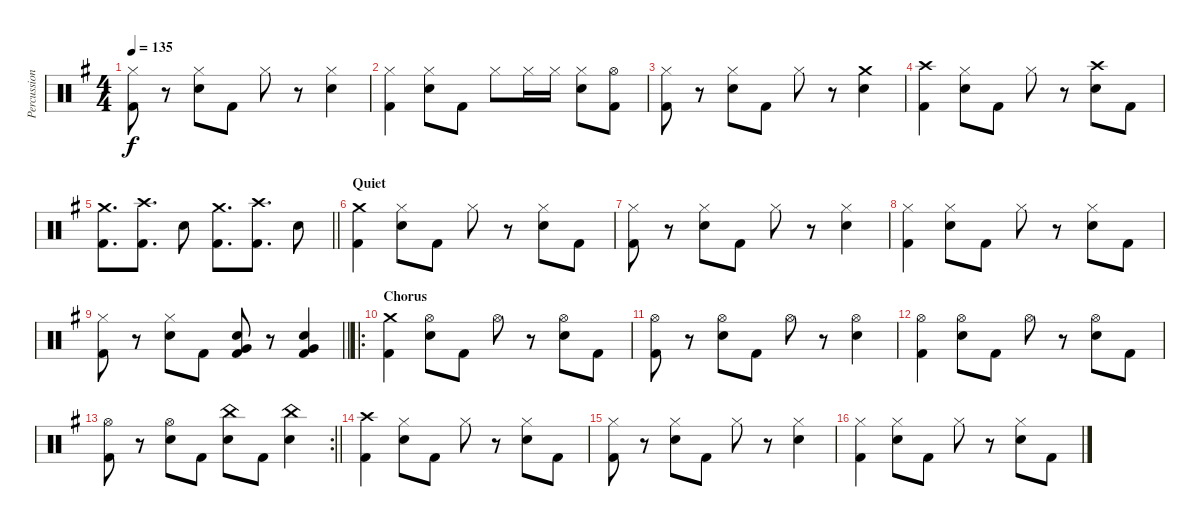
\track ("Percussion" "Percussion") {instrument percussion}
\staff {score}
\articulation defaults
\ts (4 4)
\tempo 135
\clef neutral
\ks g
("Hi-Hat (closed)" "Kick (hit) 2").8{dy f} r.8 ("Hi-Hat (closed)" "Electric Snare (hit)").8 "Kick (hit) 2".8 "Hi-Hat (closed)".8 r.8 ("Hi-Hat (closed)" "Electric Snare (hit)").4 |
("Hi-Hat (closed)" "Kick (hit) 2").4 ("Hi-Hat (closed)" "Electric Snare (hit)").8 "Kick (hit) 2".8 "Hi-Hat (closed)".8 "Hi-Hat (closed)".16 "Hi-Hat (closed)".16 ("Hi-Hat (closed)" "Electric Snare (hit)").8 ("Hi-Hat (open)" "Kick (hit) 2").8 |
("Hi-Hat (closed)" "Kick (hit) 2").8 r.8 ("Hi-Hat (closed)" "Electric Snare (hit)").8 "Kick (hit) 2".8 "Hi-Hat (closed)".8 r.8 ("Crash medium (hit)" "Electric Snare (hit)").4 |
("Crash high (hit)" "Kick (hit) 2").4 ("Hi-Hat (closed)" "Electric Snare (hit)").8 "Kick (hit) 2".8 "Hi-Hat (closed)".8 r.8 ("Crash high (hit)" "Electric Snare (hit)").8 "Kick (hit) 2".8 |
\barLineRight lightlight
("Kick (hit) 2" "Crash medium (hit)").8{d} ("Kick (hit) 2" "Crash high (hit)").8{d} "Electric Snare (hit)".8 ("Kick (hit) 2" "Crash medium (hit)").8{d} ("Kick (hit) 2" "Crash high (hit)").8{d} "Electric Snare (hit)".8 |
\section ("" "Quiet")
("Crash medium (hit)" "Kick (hit) 2").4 ("Hi-Hat (closed)" "Electric Snare (hit)").8 "Kick (hit) 2".8 "Hi-Hat (closed)".8 r.8 ("Hi-Hat (closed)" "Electric Snare (hit)").8 "Kick (hit) 2".8 |
("Hi-Hat (closed)" "Kick (hit) 2").8 r.8 ("Hi-Hat (closed)" "Electric Snare (hit)").8 "Kick (hit) 2".8 "Hi-Hat (closed)".8 r.8 ("Hi-Hat (closed)" "Electric Snare (hit)").4 |
("Hi-Hat (closed)" "Kick (hit) 2").4 ("Hi-Hat (closed)" "Electric Snare (hit)").8 "Kick (hit) 2".8 "Hi-Hat (closed)".8 r.8 ("Hi-Hat (closed)" "Electric Snare (hit)").8 "Kick (hit) 2".8 |
\barLineRight lightlight
("Hi-Hat (closed)" "Kick (hit) 2").8 r.8 ("Hi-Hat (closed)" "Electric Snare (hit)").8 "Kick (hit) 2".8 ("Very Low Tom (hit)" "Electric Snare (hit)" "Kick (hit) 2").8 r.8 ("Very Low Tom (hit)" "Electric Snare (hit)" "Kick (hit) 2").4 |
\ro
\section ("" "Chorus")
("Crash medium (hit)" "Kick (hit) 2").4 ("Hi-Hat (open)" "Electric Snare (hit)").8 "Kick (hit) 2".8 "Hi-Hat (open)".8 r.8 ("Hi-Hat (open)" "Electric Snare (hit)").8 "Kick (hit) 2".8 |
("Hi-Hat (open)" "Kick (hit) 2").8 r.8 ("Hi-Hat (open)" "Electric Snare (hit)").8 "Kick (hit) 2".8 "Hi-Hat (open)".8 r.8 ("Hi-Hat (open)" "Electric Snare (hit)").4 |
("Hi-Hat (open)" "Kick (hit) 2").4 ("Hi-Hat (open)" "Electric Snare (hit)").8 "Kick (hit) 2".8 "Hi-Hat (open)".8 r.8 ("Hi-Hat (open)" "Electric Snare (hit)").8 "Kick (hit) 2".8 |
\rc 2
\barLineRight lightlight
("Hi-Hat (open)" "Kick (hit) 2").8 r.8 ("Hi-Hat (open)" "Electric Snare (hit)").8 "Kick (hit) 2".8 ("China (hit)" "Electric Snare (hit)").8 "Kick (hit) 2".8 ("China (hit)" "Electric Snare (hit)").4 |
("Crash high (hit)" "Kick (hit) 2").4 ("Hi-Hat (closed)" "Electric Snare (hit)").8 "Kick (hit) 2".8 "Hi-Hat (closed)".8 r.8 ("Hi-Hat (closed)" "Electric Snare (hit)").8 "Kick (hit) 2".8 |
("Hi-Hat (closed)" "Kick (hit) 2").8 r.8 ("Hi-Hat (closed)" "Electric Snare (hit)").8 "Kick (hit) 2".8 "Hi-Hat (closed)".8 r.8 ("Hi-Hat (closed)" "Electric Snare (hit)").4 |
("Hi-Hat (closed)" "Kick (hit) 2").4 ("Hi-Hat (closed)" "Electric Snare (hit)").8 "Kick (hit) 2".8 "Hi-Hat (closed)".8 r.8 ("Hi-Hat (closed)" "Electric Snare (hit)").8 "Kick (hit) 2".8
